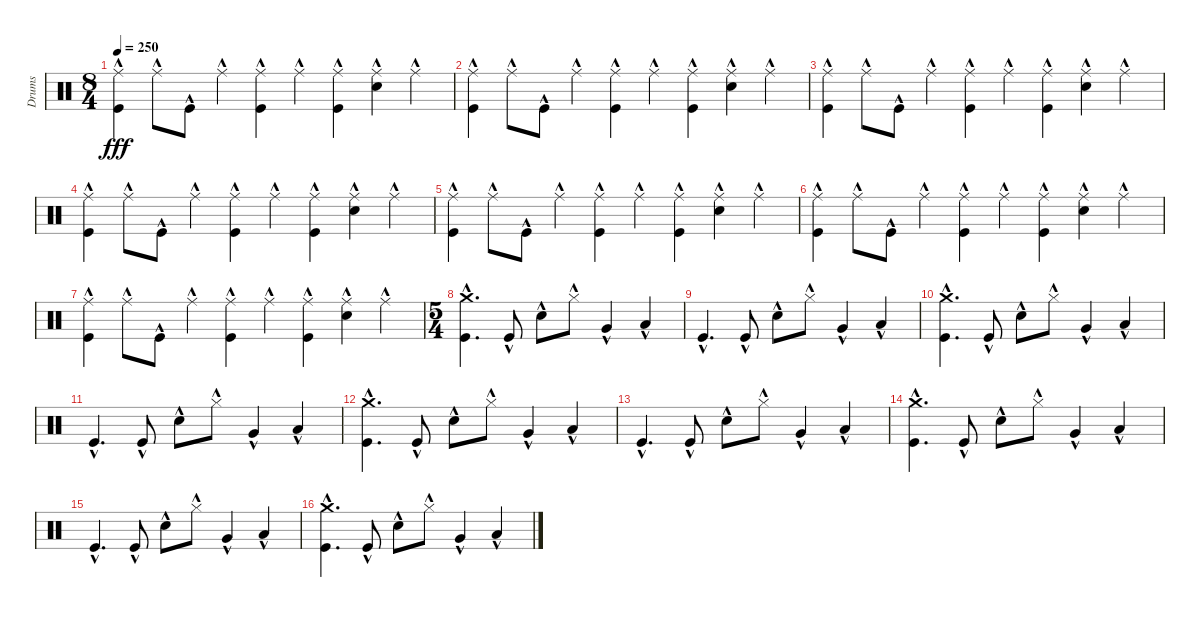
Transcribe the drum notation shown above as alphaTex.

\track ("Drums" "Drums") {instrument percussion}
\staff {score}
\articulation defaults
\ts (8 4)
\tempo 250
\clef neutral
\ks c
("Ride (middle)"{hac} "Kick (hit)"{hac}).4{dy fff} "Ride (middle)"{hac}.8 "Kick (hit)"{hac}.8 "Ride (middle)"{hac}.4 ("Ride (middle)"{hac} "Kick (hit)"{hac}).4 "Ride (middle)"{hac}.4 ("Ride (middle)"{hac} "Kick (hit)"{hac}).4 ("Ride (middle)"{hac} "Snare (hit) 2"{hac}).4 "Ride (middle)"{hac}.4 |
("Ride (middle)"{hac} "Kick (hit)"{hac}).4 "Ride (middle)"{hac}.8 "Kick (hit)"{hac}.8 "Ride (middle)"{hac}.4 ("Ride (middle)"{hac} "Kick (hit)"{hac}).4 "Ride (middle)"{hac}.4 ("Ride (middle)"{hac} "Kick (hit)"{hac}).4 ("Ride (middle)"{hac} "Snare (hit) 2"{hac}).4 "Ride (middle)"{hac}.4 |
("Ride (middle)"{hac} "Kick (hit)"{hac}).4 "Ride (middle)"{hac}.8 "Kick (hit)"{hac}.8 "Ride (middle)"{hac}.4 ("Ride (middle)"{hac} "Kick (hit)"{hac}).4 "Ride (middle)"{hac}.4 ("Ride (middle)"{hac} "Kick (hit)"{hac}).4 ("Ride (middle)"{hac} "Snare (hit) 2"{hac}).4 "Ride (middle)"{hac}.4 |
("Ride (middle)"{hac} "Kick (hit)"{hac}).4 "Ride (middle)"{hac}.8 "Kick (hit)"{hac}.8 "Ride (middle)"{hac}.4 ("Ride (middle)"{hac} "Kick (hit)"{hac}).4 "Ride (middle)"{hac}.4 ("Ride (middle)"{hac} "Kick (hit)"{hac}).4 ("Ride (middle)"{hac} "Snare (hit) 2"{hac}).4 "Ride (middle)"{hac}.4 |
("Ride (middle)"{hac} "Kick (hit)"{hac}).4 "Ride (middle)"{hac}.8 "Kick (hit)"{hac}.8 "Ride (middle)"{hac}.4 ("Ride (middle)"{hac} "Kick (hit)"{hac}).4 "Ride (middle)"{hac}.4 ("Ride (middle)"{hac} "Kick (hit)"{hac}).4 ("Ride (middle)"{hac} "Snare (hit) 2"{hac}).4 "Ride (middle)"{hac}.4 |
("Ride (middle)"{hac} "Kick (hit)"{hac}).4 "Ride (middle)"{hac}.8 "Kick (hit)"{hac}.8 "Ride (middle)"{hac}.4 ("Ride (middle)"{hac} "Kick (hit)"{hac}).4 "Ride (middle)"{hac}.4 ("Ride (middle)"{hac} "Kick (hit)"{hac}).4 ("Ride (middle)"{hac} "Snare (hit) 2"{hac}).4 "Ride (middle)"{hac}.4 |
("Ride (middle)"{hac} "Kick (hit)"{hac}).4 "Ride (middle)"{hac}.8 "Kick (hit)"{hac}.8 "Ride (middle)"{hac}.4 ("Ride (middle)"{hac} "Kick (hit)"{hac}).4 "Ride (middle)"{hac}.4 ("Ride (middle)"{hac} "Kick (hit)"{hac}).4 ("Ride (middle)"{hac} "Snare (hit) 2"{hac}).4 "Ride (middle)"{hac}.4 |
\ts (5 4)
("Crash medium (hit)"{hac} "Kick (hit)"{hac}).4{d} "Kick (hit)"{hac}.8 "Snare (hit) 2"{hac}.8 "Hi-Hat (closed)"{hac}.8 "Very Low Tom (hit)"{hac}.4 "Low Floor Tom (hit)"{hac}.4 |
"Kick (hit)"{hac}.4{d} "Kick (hit)"{hac}.8 "Snare (hit) 2"{hac}.8 "Hi-Hat (closed)"{hac}.8 "Very Low Tom (hit)"{hac}.4 "Low Floor Tom (hit)"{hac}.4 |
("Crash medium (hit)"{hac} "Kick (hit)"{hac}).4{d} "Kick (hit)"{hac}.8 "Snare (hit) 2"{hac}.8 "Hi-Hat (closed)"{hac}.8 "Very Low Tom (hit)"{hac}.4 "Low Floor Tom (hit)"{hac}.4 |
"Kick (hit)"{hac}.4{d} "Kick (hit)"{hac}.8 "Snare (hit) 2"{hac}.8 "Hi-Hat (closed)"{hac}.8 "Very Low Tom (hit)"{hac}.4 "Low Floor Tom (hit)"{hac}.4 |
("Crash medium (hit)"{hac} "Kick (hit)"{hac}).4{d} "Kick (hit)"{hac}.8 "Snare (hit) 2"{hac}.8 "Hi-Hat (closed)"{hac}.8 "Very Low Tom (hit)"{hac}.4 "Low Floor Tom (hit)"{hac}.4 |
"Kick (hit)"{hac}.4{d} "Kick (hit)"{hac}.8 "Snare (hit) 2"{hac}.8 "Hi-Hat (closed)"{hac}.8 "Very Low Tom (hit)"{hac}.4 "Low Floor Tom (hit)"{hac}.4 |
("Crash medium (hit)"{hac} "Kick (hit)"{hac}).4{d} "Kick (hit)"{hac}.8 "Snare (hit) 2"{hac}.8 "Hi-Hat (closed)"{hac}.8 "Very Low Tom (hit)"{hac}.4 "Low Floor Tom (hit)"{hac}.4 |
"Kick (hit)"{hac}.4{d} "Kick (hit)"{hac}.8 "Snare (hit) 2"{hac}.8 "Hi-Hat (closed)"{hac}.8 "Very Low Tom (hit)"{hac}.4 "Low Floor Tom (hit)"{hac}.4 |
("Crash medium (hit)"{hac} "Kick (hit)"{hac}).4{d} "Kick (hit)"{hac}.8 "Snare (hit) 2"{hac}.8 "Hi-Hat (closed)"{hac}.8 "Very Low Tom (hit)"{hac}.4 "Low Floor Tom (hit)"{hac}.4
